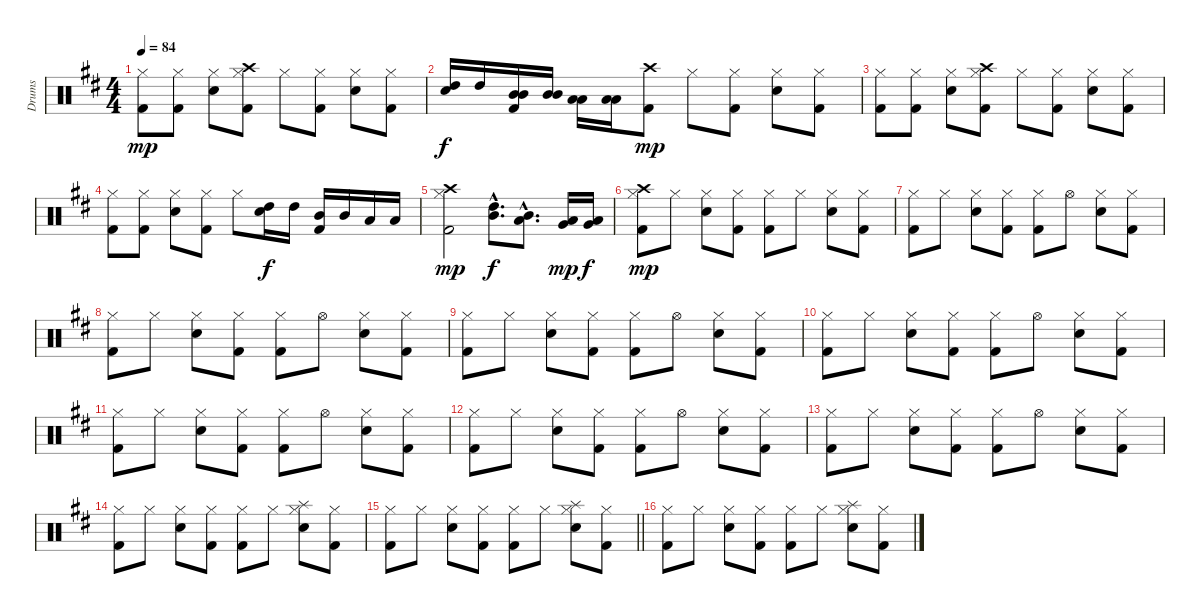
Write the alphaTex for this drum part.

\track ("Drums" "Drums") {instrument percussion}
\staff {score}
\articulation defaults
\ts (4 4)
\tempo 84
\clef neutral
\ks d
("Hi-Hat (closed)" "Kick (hit) 2").8{dy mp} ("Hi-Hat (closed)" "Kick (hit) 2").8 ("Hi-Hat (closed)" "Snare (hit) 2").8 ("Crash high (hit)" "Hi-Hat (closed)" "Kick (hit) 2").8 "Hi-Hat (closed)".8 ("Hi-Hat (closed)" "Kick (hit) 2").8 ("Hi-Hat (closed)" "Snare (hit) 2").8 ("Hi-Hat (closed)" "Kick (hit) 2").8 |
("High Tom (hit)" "Snare (hit) 2").16{dy f} "High Tom (hit)".16 ("Mid Tom (hit)" "Mid Tom (hit)" "Kick (hit) 2").16 ("Mid Tom (hit)" "Mid Tom (hit)").16 ("Low Tom (hit)" "Low Tom (hit)").16 ("Low Tom (hit)" "Low Tom (hit)").16 ("Crash high (hit)" "Kick (hit) 2").8{dy mp} "Hi-Hat (closed)".8 ("Hi-Hat (closed)" "Kick (hit) 2").8 ("Hi-Hat (closed)" "Snare (hit) 2").8 ("Hi-Hat (closed)" "Kick (hit) 2").8 |
("Hi-Hat (closed)" "Kick (hit) 2").8 ("Hi-Hat (closed)" "Kick (hit) 2").8 ("Hi-Hat (closed)" "Snare (hit) 2").8 ("Crash high (hit)" "Hi-Hat (closed)" "Kick (hit) 2").8 "Hi-Hat (closed)".8 ("Hi-Hat (closed)" "Kick (hit) 2").8 ("Hi-Hat (closed)" "Snare (hit) 2").8 ("Hi-Hat (closed)" "Kick (hit) 2").8 |
("Hi-Hat (closed)" "Kick (hit) 2").8 ("Hi-Hat (closed)" "Kick (hit) 2").8 ("Hi-Hat (closed)" "Snare (hit) 2").8 ("Hi-Hat (closed)" "Kick (hit) 2").8 "Hi-Hat (closed)".8 ("High Tom (hit)" "Snare (hit) 2").16{dy f} "High Tom (hit)".16 ("Mid Tom (hit)" "Kick (hit) 2").16 "Mid Tom (hit)".16 "Low Tom (hit)".16 "Low Tom (hit)".16 |
("Crash high (hit)" "Hi-Hat (closed)" "Kick (hit) 2").2{dy mp} ("High Tom (hit)"{hac} "Mid Tom (hit)"{hac}).8{d dy f} ("Mid Tom (hit)"{hac} "Low Tom (hit)"{hac}).8{d} ("Low Tom (hit)" "Very Low Tom (hit)").16{dy mp} ("Low Tom (hit)" "Very Low Tom (hit)").16{dy f} |
("Crash high (hit)" "Hi-Hat (closed)" "Kick (hit) 2").8{dy mp} "Hi-Hat (closed)".8 ("Hi-Hat (closed)" "Snare (hit) 2").8 ("Hi-Hat (closed)" "Kick (hit) 2").8 ("Hi-Hat (closed)" "Kick (hit) 2").8 "Hi-Hat (closed)".8 ("Hi-Hat (closed)" "Snare (hit) 2").8 ("Hi-Hat (closed)" "Kick (hit) 2").8 |
("Hi-Hat (closed)" "Kick (hit) 2").8 "Hi-Hat (closed)".8 ("Hi-Hat (closed)" "Snare (hit) 2").8 ("Hi-Hat (closed)" "Kick (hit) 2").8 ("Hi-Hat (closed)" "Kick (hit) 2").8 "Hi-Hat (open)".8 ("Hi-Hat (closed)" "Snare (hit) 2").8 ("Hi-Hat (closed)" "Kick (hit) 2").8 |
("Hi-Hat (closed)" "Kick (hit) 2").8 "Hi-Hat (closed)".8 ("Hi-Hat (closed)" "Snare (hit) 2").8 ("Hi-Hat (closed)" "Kick (hit) 2").8 ("Hi-Hat (closed)" "Kick (hit) 2").8 "Hi-Hat (open)".8 ("Hi-Hat (closed)" "Snare (hit) 2").8 ("Hi-Hat (closed)" "Kick (hit) 2").8 |
("Hi-Hat (closed)" "Kick (hit) 2").8 "Hi-Hat (closed)".8 ("Hi-Hat (closed)" "Snare (hit) 2").8 ("Hi-Hat (closed)" "Kick (hit) 2").8 ("Hi-Hat (closed)" "Kick (hit) 2").8 "Hi-Hat (open)".8 ("Hi-Hat (closed)" "Snare (hit) 2").8 ("Hi-Hat (closed)" "Kick (hit) 2").8 |
("Hi-Hat (closed)" "Kick (hit) 2").8 "Hi-Hat (closed)".8 ("Hi-Hat (closed)" "Snare (hit) 2").8 ("Hi-Hat (closed)" "Kick (hit) 2").8 ("Hi-Hat (closed)" "Kick (hit) 2").8 "Hi-Hat (open)".8 ("Hi-Hat (closed)" "Snare (hit) 2").8 ("Hi-Hat (closed)" "Kick (hit) 2").8 |
("Hi-Hat (closed)" "Kick (hit) 2").8 "Hi-Hat (closed)".8 ("Hi-Hat (closed)" "Snare (hit) 2").8 ("Hi-Hat (closed)" "Kick (hit) 2").8 ("Hi-Hat (closed)" "Kick (hit) 2").8 "Hi-Hat (open)".8 ("Hi-Hat (closed)" "Snare (hit) 2").8 ("Hi-Hat (closed)" "Kick (hit) 2").8 |
("Hi-Hat (closed)" "Kick (hit) 2").8 "Hi-Hat (closed)".8 ("Hi-Hat (closed)" "Snare (hit) 2").8 ("Hi-Hat (closed)" "Kick (hit) 2").8 ("Hi-Hat (closed)" "Kick (hit) 2").8 "Hi-Hat (open)".8 ("Hi-Hat (closed)" "Snare (hit) 2").8 ("Hi-Hat (closed)" "Kick (hit) 2").8 |
("Hi-Hat (closed)" "Kick (hit) 2").8 "Hi-Hat (closed)".8 ("Hi-Hat (closed)" "Snare (hit) 2").8 ("Hi-Hat (closed)" "Kick (hit) 2").8 ("Hi-Hat (closed)" "Kick (hit) 2").8 "Hi-Hat (open)".8 ("Hi-Hat (closed)" "Snare (hit) 2").8 ("Hi-Hat (closed)" "Kick (hit) 2").8 |
("Hi-Hat (closed)" "Kick (hit) 2").8 "Hi-Hat (closed)".8 ("Hi-Hat (closed)" "Snare (hit) 2").8 ("Hi-Hat (closed)" "Kick (hit) 2").8 ("Hi-Hat (closed)" "Kick (hit) 2").8 "Hi-Hat (closed)".8 ("Splash (hit)" "Hi-Hat (closed)" "Snare (hit) 2").8 ("Hi-Hat (closed)" "Kick (hit) 2").8 |
\barLineRight lightlight
("Hi-Hat (closed)" "Kick (hit) 2").8 "Hi-Hat (closed)".8 ("Hi-Hat (closed)" "Snare (hit) 2").8 ("Hi-Hat (closed)" "Kick (hit) 2").8 ("Hi-Hat (closed)" "Kick (hit) 2").8 "Hi-Hat (closed)".8 ("Splash (hit)" "Hi-Hat (closed)" "Snare (hit) 2").8 ("Hi-Hat (closed)" "Kick (hit) 2").8 |
("Hi-Hat (closed)" "Kick (hit) 2").8{volume 0} "Hi-Hat (closed)".8 ("Hi-Hat (closed)" "Snare (hit) 2").8 ("Hi-Hat (closed)" "Kick (hit) 2").8 ("Hi-Hat (closed)" "Kick (hit) 2").8 "Hi-Hat (closed)".8 ("Splash (hit)" "Hi-Hat (closed)" "Snare (hit) 2").8 ("Hi-Hat (closed)" "Kick (hit) 2").8
